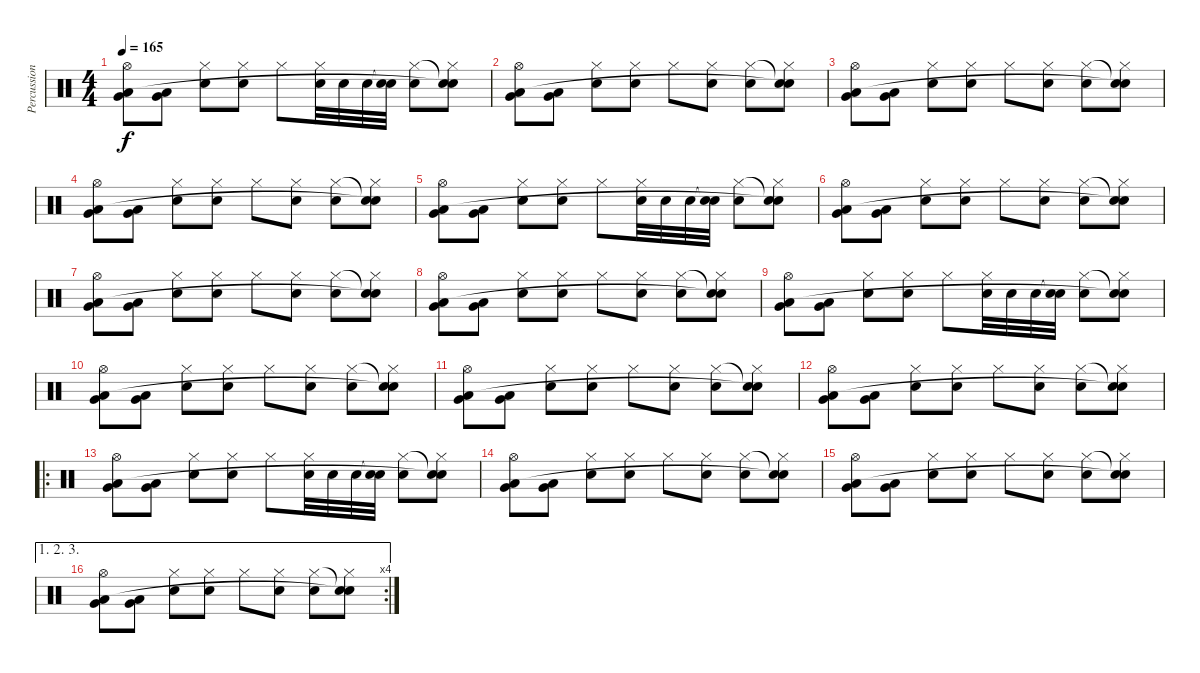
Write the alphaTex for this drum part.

\track ("Percussion" "Percussion") {instrument percussion}
\staff {score}
\articulation defaults
\ts (4 4)
\tempo 165
\clef neutral
\ks c
("Hi-Hat (open)" "Very Low Tom (hit)" "Low Tom (hit)").8{dy f} ("Very Low Tom (hit)" "Low Tom (hit)").8 ("Hi-Hat (closed)" "Electric Snare (hit)").8 ("Hi-Hat (closed)" "Snare (hit) 2").8 "Hi-Hat (closed)".8 ("Hi-Hat (closed)" "Electric Snare (hit)").32 "Electric Snare (hit)".32 "Electric Snare (hit)".32 ("Snare (hit)"{t} "Electric Snare (hit)").32 ("Hi-Hat (closed)" "Snare (hit) 2").8 ("Snare (hit)"{t} "Hi-Hat (closed)" "Snare (hit)"{t}).8 |
("Hi-Hat (open)" "Very Low Tom (hit)" "Low Tom (hit)").8 ("Very Low Tom (hit)" "Low Tom (hit)").8 ("Hi-Hat (closed)" "Electric Snare (hit)").8 ("Hi-Hat (closed)" "Snare (hit) 2").8 "Hi-Hat (closed)".8 ("Hi-Hat (closed)" "Electric Snare (hit)").8 ("Hi-Hat (closed)" "Snare (hit) 2").8 ("Snare (hit)"{t} "Hi-Hat (closed)" "Snare (hit)"{t}).8 |
("Hi-Hat (open)" "Very Low Tom (hit)" "Low Tom (hit)").8 ("Very Low Tom (hit)" "Low Tom (hit)").8 ("Hi-Hat (closed)" "Electric Snare (hit)").8 ("Hi-Hat (closed)" "Snare (hit) 2").8 "Hi-Hat (closed)".8 ("Hi-Hat (closed)" "Electric Snare (hit)").8 ("Hi-Hat (closed)" "Snare (hit) 2").8 ("Snare (hit)"{t} "Hi-Hat (closed)" "Snare (hit)"{t}).8 |
("Hi-Hat (open)" "Very Low Tom (hit)" "Low Tom (hit)").8 ("Very Low Tom (hit)" "Low Tom (hit)").8 ("Hi-Hat (closed)" "Electric Snare (hit)").8 ("Hi-Hat (closed)" "Snare (hit) 2").8 "Hi-Hat (closed)".8 ("Hi-Hat (closed)" "Electric Snare (hit)").8 ("Hi-Hat (closed)" "Snare (hit) 2").8 ("Snare (hit)"{t} "Hi-Hat (closed)" "Snare (hit)"{t}).8 |
("Hi-Hat (open)" "Very Low Tom (hit)" "Low Tom (hit)").8 ("Very Low Tom (hit)" "Low Tom (hit)").8 ("Hi-Hat (closed)" "Electric Snare (hit)").8 ("Hi-Hat (closed)" "Snare (hit) 2").8 "Hi-Hat (closed)".8 ("Hi-Hat (closed)" "Electric Snare (hit)").32 "Electric Snare (hit)".32 "Electric Snare (hit)".32 ("Snare (hit)"{t} "Electric Snare (hit)").32 ("Hi-Hat (closed)" "Snare (hit) 2").8 ("Snare (hit)"{t} "Hi-Hat (closed)" "Snare (hit)"{t}).8 |
("Hi-Hat (open)" "Very Low Tom (hit)" "Low Tom (hit)").8 ("Very Low Tom (hit)" "Low Tom (hit)").8 ("Hi-Hat (closed)" "Electric Snare (hit)").8 ("Hi-Hat (closed)" "Snare (hit) 2").8 "Hi-Hat (closed)".8 ("Hi-Hat (closed)" "Electric Snare (hit)").8 ("Hi-Hat (closed)" "Snare (hit) 2").8 ("Snare (hit)"{t} "Hi-Hat (closed)" "Snare (hit)"{t}).8 |
("Hi-Hat (open)" "Very Low Tom (hit)" "Low Tom (hit)").8 ("Very Low Tom (hit)" "Low Tom (hit)").8 ("Hi-Hat (closed)" "Electric Snare (hit)").8 ("Hi-Hat (closed)" "Snare (hit) 2").8 "Hi-Hat (closed)".8 ("Hi-Hat (closed)" "Electric Snare (hit)").8 ("Hi-Hat (closed)" "Snare (hit) 2").8 ("Snare (hit)"{t} "Hi-Hat (closed)" "Snare (hit)"{t}).8 |
("Hi-Hat (open)" "Very Low Tom (hit)" "Low Tom (hit)").8 ("Very Low Tom (hit)" "Low Tom (hit)").8 ("Hi-Hat (closed)" "Electric Snare (hit)").8 ("Hi-Hat (closed)" "Snare (hit) 2").8 "Hi-Hat (closed)".8 ("Hi-Hat (closed)" "Electric Snare (hit)").8 ("Hi-Hat (closed)" "Snare (hit) 2").8 ("Snare (hit)"{t} "Hi-Hat (closed)" "Snare (hit)"{t}).8 |
("Hi-Hat (open)" "Very Low Tom (hit)" "Low Tom (hit)").8 ("Very Low Tom (hit)" "Low Tom (hit)").8 ("Hi-Hat (closed)" "Electric Snare (hit)").8 ("Hi-Hat (closed)" "Snare (hit) 2").8 "Hi-Hat (closed)".8 ("Hi-Hat (closed)" "Electric Snare (hit)").32 "Electric Snare (hit)".32 "Electric Snare (hit)".32 ("Snare (hit)"{t} "Electric Snare (hit)").32 ("Hi-Hat (closed)" "Snare (hit) 2").8 ("Snare (hit)"{t} "Hi-Hat (closed)" "Snare (hit)"{t}).8 |
("Hi-Hat (open)" "Very Low Tom (hit)" "Low Tom (hit)").8 ("Very Low Tom (hit)" "Low Tom (hit)").8 ("Hi-Hat (closed)" "Electric Snare (hit)").8 ("Hi-Hat (closed)" "Snare (hit) 2").8 "Hi-Hat (closed)".8 ("Hi-Hat (closed)" "Electric Snare (hit)").8 ("Hi-Hat (closed)" "Snare (hit) 2").8 ("Snare (hit)"{t} "Hi-Hat (closed)" "Snare (hit)"{t}).8 |
("Hi-Hat (open)" "Very Low Tom (hit)" "Low Tom (hit)").8 ("Very Low Tom (hit)" "Low Tom (hit)").8 ("Hi-Hat (closed)" "Electric Snare (hit)").8 ("Hi-Hat (closed)" "Snare (hit) 2").8 "Hi-Hat (closed)".8 ("Hi-Hat (closed)" "Electric Snare (hit)").8 ("Hi-Hat (closed)" "Snare (hit) 2").8 ("Snare (hit)"{t} "Hi-Hat (closed)" "Snare (hit)"{t}).8 |
("Hi-Hat (open)" "Very Low Tom (hit)" "Low Tom (hit)").8 ("Very Low Tom (hit)" "Low Tom (hit)").8 ("Hi-Hat (closed)" "Electric Snare (hit)").8 ("Hi-Hat (closed)" "Snare (hit) 2").8 "Hi-Hat (closed)".8 ("Hi-Hat (closed)" "Electric Snare (hit)").8 ("Hi-Hat (closed)" "Snare (hit) 2").8 ("Snare (hit)"{t} "Hi-Hat (closed)" "Snare (hit)"{t}).8 |
\ro
("Hi-Hat (open)" "Very Low Tom (hit)" "Low Tom (hit)").8 ("Very Low Tom (hit)" "Low Tom (hit)").8 ("Hi-Hat (closed)" "Electric Snare (hit)").8 ("Hi-Hat (closed)" "Snare (hit) 2").8 "Hi-Hat (closed)".8 ("Hi-Hat (closed)" "Electric Snare (hit)").32 "Electric Snare (hit)".32 "Electric Snare (hit)".32 ("Snare (hit)"{t} "Electric Snare (hit)").32 ("Hi-Hat (closed)" "Snare (hit) 2").8 ("Snare (hit)"{t} "Hi-Hat (closed)" "Snare (hit)"{t}).8 |
("Hi-Hat (open)" "Very Low Tom (hit)" "Low Tom (hit)").8 ("Very Low Tom (hit)" "Low Tom (hit)").8 ("Hi-Hat (closed)" "Electric Snare (hit)").8 ("Hi-Hat (closed)" "Snare (hit) 2").8 "Hi-Hat (closed)".8 ("Hi-Hat (closed)" "Electric Snare (hit)").8 ("Hi-Hat (closed)" "Snare (hit) 2").8 ("Snare (hit)"{t} "Hi-Hat (closed)" "Snare (hit)"{t}).8 |
("Hi-Hat (open)" "Very Low Tom (hit)" "Low Tom (hit)").8 ("Very Low Tom (hit)" "Low Tom (hit)").8 ("Hi-Hat (closed)" "Electric Snare (hit)").8 ("Hi-Hat (closed)" "Snare (hit) 2").8 "Hi-Hat (closed)".8 ("Hi-Hat (closed)" "Electric Snare (hit)").8 ("Hi-Hat (closed)" "Snare (hit) 2").8 ("Snare (hit)"{t} "Hi-Hat (closed)" "Snare (hit)"{t}).8 |
\ae (1 2 3)
\rc 4
("Hi-Hat (open)" "Very Low Tom (hit)" "Low Tom (hit)").8 ("Very Low Tom (hit)" "Low Tom (hit)").8 ("Hi-Hat (closed)" "Electric Snare (hit)").8 ("Hi-Hat (closed)" "Snare (hit) 2").8 "Hi-Hat (closed)".8 ("Hi-Hat (closed)" "Electric Snare (hit)").8 ("Hi-Hat (closed)" "Snare (hit) 2").8 ("Snare (hit)"{t} "Hi-Hat (closed)" "Snare (hit)"{t}).8
